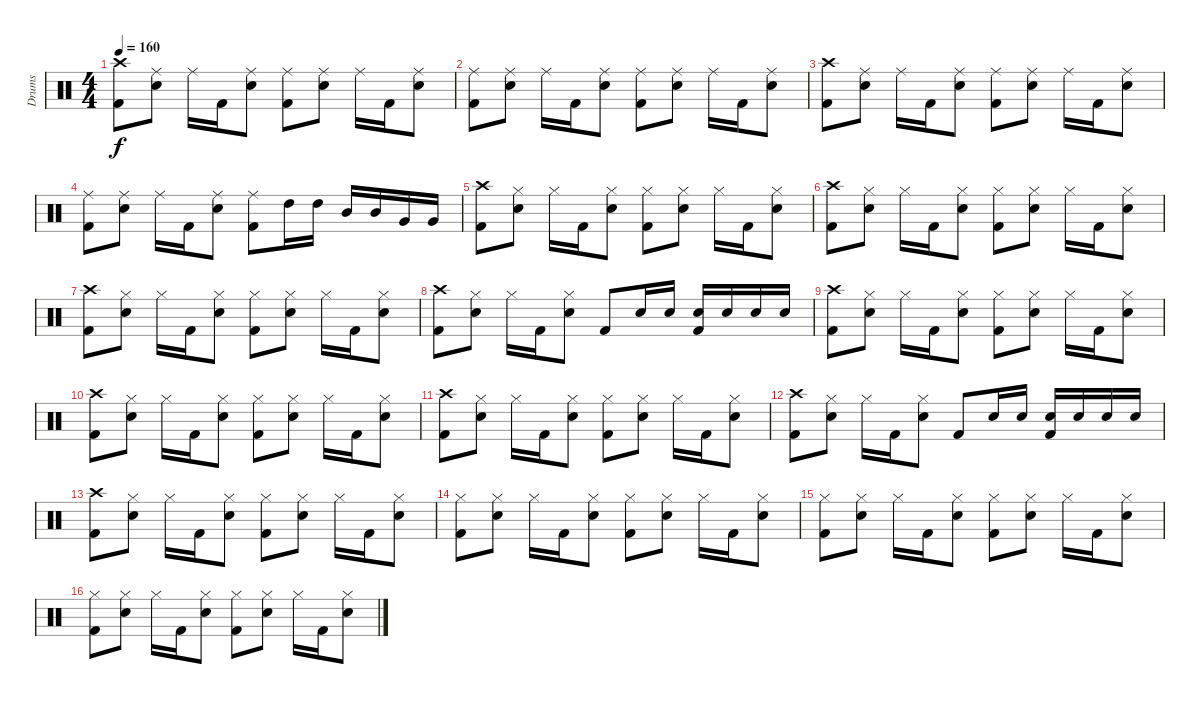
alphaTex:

\track ("Drums" "Drums") {instrument percussion}
\staff {score}
\articulation defaults
\ts (4 4)
\tempo 160
\clef neutral
\ks c
("Crash high (hit)" "Kick (hit) 2").8{dy f} ("Ride (middle)" "Snare (hit) 2").8 "Ride (middle)".16 "Kick (hit) 2".16 ("Ride (middle)" "Snare (hit) 2").8 ("Ride (middle)" "Kick (hit) 2").8 ("Ride (middle)" "Snare (hit) 2").8 "Ride (middle)".16 "Kick (hit) 2".16 ("Ride (middle)" "Snare (hit) 2").8 |
("Ride (middle)" "Kick (hit) 2").8 ("Ride (middle)" "Snare (hit) 2").8 "Ride (middle)".16 "Kick (hit) 2".16 ("Ride (middle)" "Snare (hit) 2").8 ("Ride (middle)" "Kick (hit) 2").8 ("Ride (middle)" "Snare (hit) 2").8 "Ride (middle)".16 "Kick (hit) 2".16 ("Ride (middle)" "Snare (hit) 2").8 |
("Crash high (hit)" "Kick (hit) 2").8 ("Ride (middle)" "Snare (hit) 2").8 "Ride (middle)".16 "Kick (hit) 2".16 ("Ride (middle)" "Snare (hit) 2").8 ("Ride (middle)" "Kick (hit) 2").8 ("Ride (middle)" "Snare (hit) 2").8 "Ride (middle)".16 "Kick (hit) 2".16 ("Ride (middle)" "Snare (hit) 2").8 |
("Ride (middle)" "Kick (hit) 2").8 ("Ride (middle)" "Snare (hit) 2").8 "Ride (middle)".16 "Kick (hit) 2".16 ("Ride (middle)" "Snare (hit) 2").8 ("Ride (middle)" "Kick (hit) 2").8 "High Tom (hit)".16 "High Tom (hit)".16 "Mid Tom (hit)".16 "Mid Tom (hit)".16 "Very Low Tom (hit)".16 "Very Low Tom (hit)".16 |
("Crash high (hit)" "Kick (hit) 2").8 ("Hi-Hat (closed)" "Snare (hit) 2").8 "Hi-Hat (closed)".16 "Kick (hit) 2".16 ("Hi-Hat (closed)" "Snare (hit) 2").8 ("Hi-Hat (closed)" "Kick (hit) 2").8 ("Hi-Hat (closed)" "Snare (hit) 2").8 "Hi-Hat (closed)".16 "Kick (hit) 2".16 ("Hi-Hat (closed)" "Snare (hit) 2").8 |
("Crash high (hit)" "Kick (hit) 2").8 ("Hi-Hat (closed)" "Snare (hit) 2").8 "Hi-Hat (closed)".16 "Kick (hit) 2".16 ("Hi-Hat (closed)" "Snare (hit) 2").8 ("Hi-Hat (closed)" "Kick (hit) 2").8 ("Hi-Hat (closed)" "Snare (hit) 2").8 "Hi-Hat (closed)".16 "Kick (hit) 2".16 ("Hi-Hat (closed)" "Snare (hit) 2").8 |
("Crash high (hit)" "Kick (hit) 2").8 ("Hi-Hat (closed)" "Snare (hit) 2").8 "Hi-Hat (closed)".16 "Kick (hit) 2".16 ("Hi-Hat (closed)" "Snare (hit) 2").8 ("Hi-Hat (closed)" "Kick (hit) 2").8 ("Hi-Hat (closed)" "Snare (hit) 2").8 "Hi-Hat (closed)".16 "Kick (hit) 2".16 ("Hi-Hat (closed)" "Snare (hit) 2").8 |
("Crash high (hit)" "Kick (hit) 2").8 ("Hi-Hat (closed)" "Snare (hit) 2").8 "Hi-Hat (closed)".16 "Kick (hit) 2".16 ("Hi-Hat (closed)" "Snare (hit) 2").8 "Kick (hit) 2".8 "Snare (hit) 2".16 "Snare (hit) 2".16 ("Snare (hit) 2" "Kick (hit) 2").16 "Snare (hit) 2".16 "Snare (hit) 2".16 "Snare (hit) 2".16 |
("Crash high (hit)" "Kick (hit) 2").8 ("Hi-Hat (closed)" "Snare (hit) 2").8 "Hi-Hat (closed)".16 "Kick (hit) 2".16 ("Hi-Hat (closed)" "Snare (hit) 2").8 ("Hi-Hat (closed)" "Kick (hit) 2").8 ("Hi-Hat (closed)" "Snare (hit) 2").8 "Hi-Hat (closed)".16 "Kick (hit) 2".16 ("Hi-Hat (closed)" "Snare (hit) 2").8 |
("Crash high (hit)" "Kick (hit) 2").8 ("Hi-Hat (closed)" "Snare (hit) 2").8 "Hi-Hat (closed)".16 "Kick (hit) 2".16 ("Hi-Hat (closed)" "Snare (hit) 2").8 ("Hi-Hat (closed)" "Kick (hit) 2").8 ("Hi-Hat (closed)" "Snare (hit) 2").8 "Hi-Hat (closed)".16 "Kick (hit) 2".16 ("Hi-Hat (closed)" "Snare (hit) 2").8 |
("Crash high (hit)" "Kick (hit) 2").8 ("Hi-Hat (closed)" "Snare (hit) 2").8 "Hi-Hat (closed)".16 "Kick (hit) 2".16 ("Hi-Hat (closed)" "Snare (hit) 2").8 ("Hi-Hat (closed)" "Kick (hit) 2").8 ("Hi-Hat (closed)" "Snare (hit) 2").8 "Hi-Hat (closed)".16 "Kick (hit) 2".16 ("Hi-Hat (closed)" "Snare (hit) 2").8 |
("Crash high (hit)" "Kick (hit) 2").8 ("Hi-Hat (closed)" "Snare (hit) 2").8 "Hi-Hat (closed)".16 "Kick (hit) 2".16 ("Hi-Hat (closed)" "Snare (hit) 2").8 "Kick (hit) 2".8 "Snare (hit) 2".16 "Snare (hit) 2".16 ("Snare (hit) 2" "Kick (hit) 2").16 "Snare (hit) 2".16 "Snare (hit) 2".16 "Snare (hit) 2".16 |
("Crash high (hit)" "Kick (hit) 2").8 ("Hi-Hat (closed)" "Snare (hit) 2").8 "Hi-Hat (closed)".16 "Kick (hit) 2".16 ("Hi-Hat (closed)" "Snare (hit) 2").8 ("Hi-Hat (closed)" "Kick (hit) 2").8 ("Hi-Hat (closed)" "Snare (hit) 2").8 "Hi-Hat (closed)".16 "Kick (hit) 2".16 ("Hi-Hat (closed)" "Snare (hit) 2").8 |
("Hi-Hat (closed)" "Kick (hit) 2").8 ("Hi-Hat (closed)" "Snare (hit) 2").8 "Hi-Hat (closed)".16 "Kick (hit) 2".16 ("Hi-Hat (closed)" "Snare (hit) 2").8 ("Hi-Hat (closed)" "Kick (hit) 2").8 ("Hi-Hat (closed)" "Snare (hit) 2").8 "Hi-Hat (closed)".16 "Kick (hit) 2".16 ("Hi-Hat (closed)" "Snare (hit) 2").8 |
("Hi-Hat (closed)" "Kick (hit) 2").8 ("Hi-Hat (closed)" "Snare (hit) 2").8 "Hi-Hat (closed)".16 "Kick (hit) 2".16 ("Hi-Hat (closed)" "Snare (hit) 2").8 ("Hi-Hat (closed)" "Kick (hit) 2").8 ("Hi-Hat (closed)" "Snare (hit) 2").8 "Hi-Hat (closed)".16 "Kick (hit) 2".16 ("Hi-Hat (closed)" "Snare (hit) 2").8 |
("Hi-Hat (closed)" "Kick (hit) 2").8 ("Hi-Hat (closed)" "Snare (hit) 2").8 "Hi-Hat (closed)".16 "Kick (hit) 2".16 ("Hi-Hat (closed)" "Snare (hit) 2").8 ("Hi-Hat (closed)" "Kick (hit) 2").8 ("Hi-Hat (closed)" "Snare (hit) 2").8 "Hi-Hat (closed)".16 "Kick (hit) 2".16 ("Hi-Hat (closed)" "Snare (hit) 2").8
